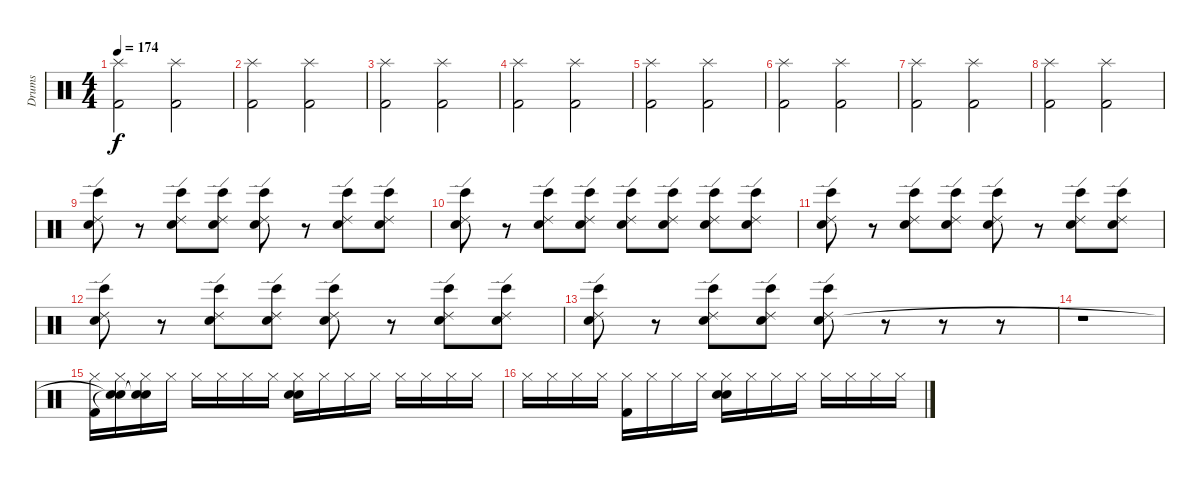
\track ("Drums" "Drums") {instrument percussion}
\staff {score}
\articulation defaults
\ts (4 4)
\tempo 174
\clef neutral
\ks c
("Kick (hit) 2" "Splash (hit)").2{dy f} ("Kick (hit) 2" "Splash (hit)").2 |
("Kick (hit) 2" "Splash (hit)").2 ("Kick (hit) 2" "Splash (hit)").2 |
("Kick (hit) 2" "Splash (hit)").2 ("Kick (hit) 2" "Splash (hit)").2 |
("Kick (hit) 2" "Splash (hit)").2 ("Kick (hit) 2" "Splash (hit)").2 |
("Kick (hit) 2" "Splash (hit)").2 ("Kick (hit) 2" "Splash (hit)").2 |
("Kick (hit) 2" "Splash (hit)").2 ("Kick (hit) 2" "Splash (hit)").2 |
("Kick (hit) 2" "Splash (hit)").2 ("Kick (hit) 2" "Splash (hit)").2 |
("Kick (hit) 2" "Splash (hit)").2 ("Kick (hit) 2" "Splash (hit)").2 |
("Ride (edge) 2" "Bongo High (hit)" "Electric Snare (hit)").8 r.8 ("Ride (edge) 2" "Bongo High (hit)" "Electric Snare (hit)").8 ("Ride (edge) 2" "Bongo High (hit)" "Electric Snare (hit)").8 ("Ride (edge) 2" "Bongo High (hit)" "Electric Snare (hit)").8 r.8 ("Ride (edge) 2" "Bongo High (hit)" "Electric Snare (hit)").8 ("Ride (edge) 2" "Bongo High (hit)" "Electric Snare (hit)").8 |
("Ride (edge) 2" "Bongo High (hit)" "Electric Snare (hit)").8 r.8 ("Ride (edge) 2" "Bongo High (hit)" "Electric Snare (hit)").8 ("Ride (edge) 2" "Bongo High (hit)" "Electric Snare (hit)").8 ("Ride (edge) 2" "Bongo High (hit)" "Electric Snare (hit)").8 ("Ride (edge) 2" "Bongo High (hit)" "Electric Snare (hit)").8 ("Ride (edge) 2" "Bongo High (hit)" "Electric Snare (hit)").8 ("Ride (edge) 2" "Bongo High (hit)" "Electric Snare (hit)").8 |
("Ride (edge) 2" "Bongo High (hit)" "Electric Snare (hit)").8 r.8 ("Ride (edge) 2" "Bongo High (hit)" "Electric Snare (hit)").8 ("Ride (edge) 2" "Bongo High (hit)" "Electric Snare (hit)").8 ("Ride (edge) 2" "Bongo High (hit)" "Electric Snare (hit)").8 r.8 ("Ride (edge) 2" "Bongo High (hit)" "Electric Snare (hit)").8 ("Ride (edge) 2" "Bongo High (hit)" "Electric Snare (hit)").8 |
("Ride (edge) 2" "Bongo High (hit)" "Electric Snare (hit)").8 r.8 ("Ride (edge) 2" "Bongo High (hit)" "Electric Snare (hit)").8 ("Ride (edge) 2" "Bongo High (hit)" "Electric Snare (hit)").8 ("Ride (edge) 2" "Bongo High (hit)" "Electric Snare (hit)").8 r.8 ("Ride (edge) 2" "Bongo High (hit)" "Electric Snare (hit)").8{volume 6} ("Ride (edge) 2" "Bongo High (hit)" "Electric Snare (hit)").8 |
("Ride (edge) 2" "Bongo High (hit)" "Electric Snare (hit)").8 r.8 ("Ride (edge) 2" "Bongo High (hit)" "Electric Snare (hit)").8 ("Ride (edge) 2" "Bongo High (hit)" "Electric Snare (hit)").8 ("Ride (edge) 2" "Bongo High (hit)" "Electric Snare (hit)").8 r.8 r.8 r.8 |
r.1{volume 16} |
("Hi-Hat (closed)" "Kick (hit) 2").16 ("Hi-Hat (closed)" "Snare (hit)"{t} "Snare (hit)"{t}).16 ("Hi-Hat (closed)" "Snare (hit)"{t} "Snare (hit)"{t}).16 "Hi-Hat (closed)".16 "Hi-Hat (closed)".16 "Hi-Hat (closed)".16 "Hi-Hat (closed)".16 "Hi-Hat (closed)".16 ("Hi-Hat (closed)" "Electric Snare (hit)" "Snare (hit) 2").16 "Hi-Hat (closed)".16 "Hi-Hat (closed)".16 "Hi-Hat (closed)".16 "Hi-Hat (closed)".16 "Hi-Hat (closed)".16 "Hi-Hat (closed)".16 "Hi-Hat (closed)".16 |
"Hi-Hat (closed)".16 "Hi-Hat (closed)".16 "Hi-Hat (closed)".16 "Hi-Hat (closed)".16 ("Hi-Hat (closed)" "Kick (hit) 2").16 "Hi-Hat (closed)".16 "Hi-Hat (closed)".16 "Hi-Hat (closed)".16 ("Hi-Hat (closed)" "Electric Snare (hit)" "Snare (hit) 2").16 "Hi-Hat (closed)".16 "Hi-Hat (closed)".16 "Hi-Hat (closed)".16 "Hi-Hat (closed)".16 "Hi-Hat (closed)".16 "Hi-Hat (closed)".16 "Hi-Hat (closed)".16
